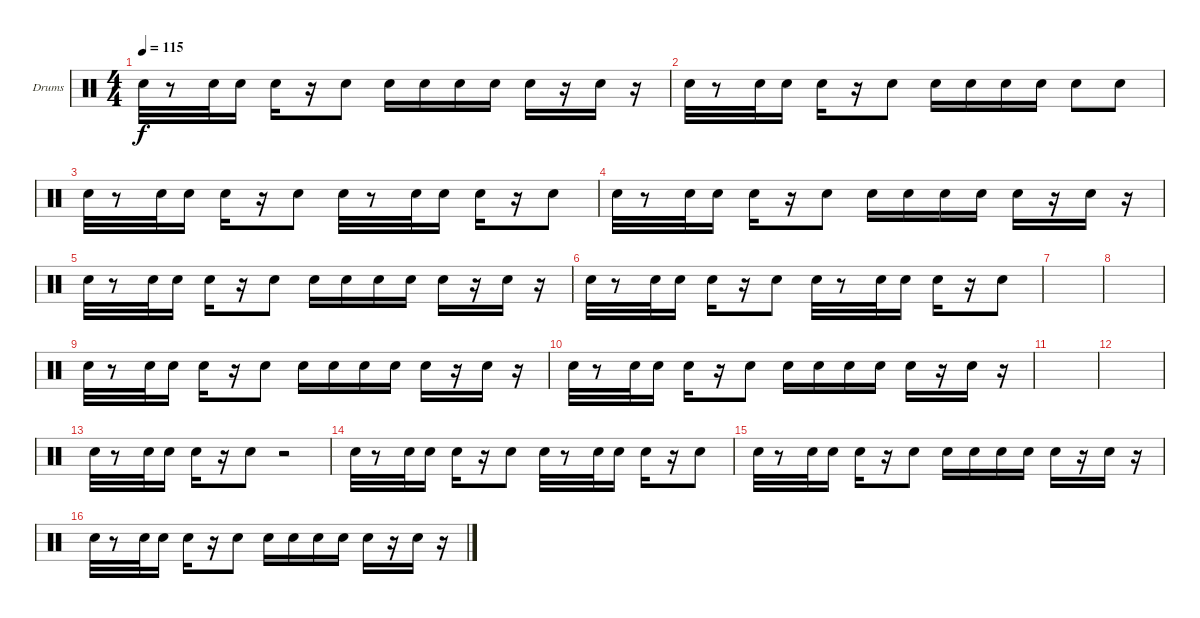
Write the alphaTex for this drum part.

\bracketExtendMode groupsimilarinstruments
\firstSystemTrackNameOrientation horizontal
\otherSystemsTrackNameOrientation horizontal
\track ("Drumkit" "Drums") {instrument percussion}
\staff {score}
\articulation defaults
\ts (4 4)
\tempo 115
\clef neutral
\ks c "Snare (hit) 2".32{dy f}
r.8 "Snare (hit) 2".32 "Snare (hit) 2".16 "Snare (hit) 2".16 r.16 "Snare (hit) 2".8 "Snare (hit) 2".16 "Snare (hit) 2".16 "Snare (hit) 2".16 "Snare (hit) 2".16 "Snare (hit) 2".16 r.16 "Snare (hit) 2".16 r.16 |
"Snare (hit) 2".32 r.8 "Snare (hit) 2".32 "Snare (hit) 2".16 "Snare (hit) 2".16 r.16 "Snare (hit) 2".8 "Snare (hit) 2".16 "Snare (hit) 2".16 "Snare (hit) 2".16 "Snare (hit) 2".16 "Snare (hit) 2".8 "Snare (hit) 2".8 |
"Snare (hit) 2".32 r.8 "Snare (hit) 2".32 "Snare (hit) 2".16 "Snare (hit) 2".16 r.16 "Snare (hit) 2".8 "Snare (hit) 2".32 r.8 "Snare (hit) 2".32 "Snare (hit) 2".16 "Snare (hit) 2".16 r.16 "Snare (hit) 2".8 |
"Snare (hit) 2".32 r.8 "Snare (hit) 2".32 "Snare (hit) 2".16 "Snare (hit) 2".16 r.16 "Snare (hit) 2".8 "Snare (hit) 2".16 "Snare (hit) 2".16 "Snare (hit) 2".16 "Snare (hit) 2".16 "Snare (hit) 2".16 r.16 "Snare (hit) 2".16 r.16 |
"Snare (hit) 2".32 r.8 "Snare (hit) 2".32 "Snare (hit) 2".16 "Snare (hit) 2".16 r.16 "Snare (hit) 2".8 "Snare (hit) 2".16 "Snare (hit) 2".16 "Snare (hit) 2".16 "Snare (hit) 2".16 "Snare (hit) 2".16 r.16 "Snare (hit) 2".16 r.16 |
"Snare (hit) 2".32 r.8 "Snare (hit) 2".32 "Snare (hit) 2".16 "Snare (hit) 2".16 r.16 "Snare (hit) 2".8 "Snare (hit) 2".32 r.8 "Snare (hit) 2".32 "Snare (hit) 2".16 "Snare (hit) 2".16 r.16 "Snare (hit) 2".8 |
|
|
"Snare (hit) 2".32 r.8 "Snare (hit) 2".32 "Snare (hit) 2".16 "Snare (hit) 2".16 r.16 "Snare (hit) 2".8 "Snare (hit) 2".16 "Snare (hit) 2".16 "Snare (hit) 2".16 "Snare (hit) 2".16 "Snare (hit) 2".16 r.16 "Snare (hit) 2".16 r.16 |
"Snare (hit) 2".32 r.8 "Snare (hit) 2".32 "Snare (hit) 2".16 "Snare (hit) 2".16 r.16 "Snare (hit) 2".8 "Snare (hit) 2".16 "Snare (hit) 2".16 "Snare (hit) 2".16 "Snare (hit) 2".16 "Snare (hit) 2".16 r.16 "Snare (hit) 2".16 r.16 |
|
|
"Snare (hit) 2".32 r.8 "Snare (hit) 2".32 "Snare (hit) 2".16 "Snare (hit) 2".16 r.16 "Snare (hit) 2".8 r.2 |
"Snare (hit) 2".32 r.8 "Snare (hit) 2".32 "Snare (hit) 2".16 "Snare (hit) 2".16 r.16 "Snare (hit) 2".8 "Snare (hit) 2".32 r.8 "Snare (hit) 2".32 "Snare (hit) 2".16 "Snare (hit) 2".16 r.16 "Snare (hit) 2".8 |
"Snare (hit) 2".32 r.8 "Snare (hit) 2".32 "Snare (hit) 2".16 "Snare (hit) 2".16 r.16 "Snare (hit) 2".8 "Snare (hit) 2".16 "Snare (hit) 2".16 "Snare (hit) 2".16 "Snare (hit) 2".16 "Snare (hit) 2".16 r.16 "Snare (hit) 2".16 r.16 |
"Snare (hit) 2".32 r.8 "Snare (hit) 2".32 "Snare (hit) 2".16 "Snare (hit) 2".16 r.16 "Snare (hit) 2".8 "Snare (hit) 2".16 "Snare (hit) 2".16 "Snare (hit) 2".16 "Snare (hit) 2".16 "Snare (hit) 2".16 r.16 "Snare (hit) 2".16 r.16
